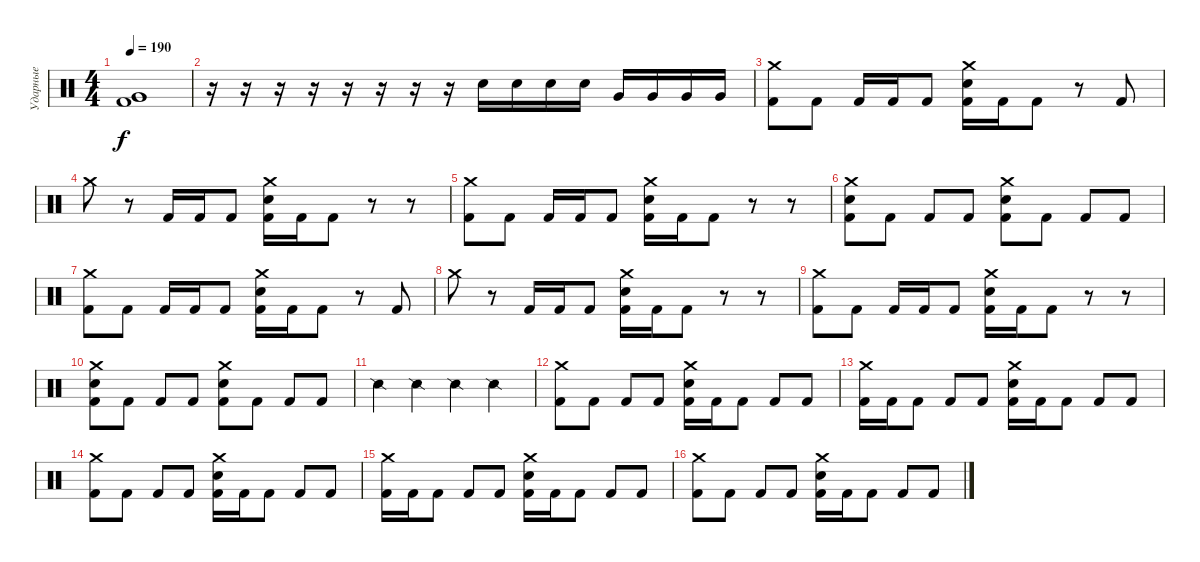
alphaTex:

\track ("Ударные" "Ударные") {instrument percussion}
\staff {score}
\articulation defaults
\ts (4 4)
\tempo 190
\clef neutral
\ks c
("Very Low Tom (hit)" "Very Low Tom (hit)" "Kick (hit) 2").1{dy f} |
r.16 r.16 r.16 r.16 r.16 r.16 r.16 r.16 "Electric Snare (hit)".16 "Electric Snare (hit)".16 "Electric Snare (hit)".16 "Electric Snare (hit)".16 "Very Low Tom (hit)".16 "Very Low Tom (hit)".16 "Very Low Tom (hit)".16 "Very Low Tom (hit)".16 |
("Crash medium (hit)" "Kick (hit) 2").8 "Kick (hit) 2".8 "Kick (hit) 2".16 "Kick (hit) 2".16 "Kick (hit) 2".8 ("Crash medium (hit)" "Electric Snare (hit)" "Kick (hit) 2").16 "Kick (hit) 2".16 "Kick (hit) 2".8 r.8 "Kick (hit) 2".8 |
"Crash medium (hit)".8 r.8 "Kick (hit) 2".16 "Kick (hit) 2".16 "Kick (hit) 2".8 ("Crash medium (hit)" "Electric Snare (hit)" "Kick (hit) 2").16 "Kick (hit) 2".16 "Kick (hit) 2".8 r.8 r.8 |
("Crash medium (hit)" "Kick (hit) 2").8 "Kick (hit) 2".8 "Kick (hit) 2".16 "Kick (hit) 2".16 "Kick (hit) 2".8 ("Crash medium (hit)" "Electric Snare (hit)" "Kick (hit) 2").16 "Kick (hit) 2".16 "Kick (hit) 2".8 r.8 r.8 |
("Crash medium (hit)" "Electric Snare (hit)" "Kick (hit) 2").8 "Kick (hit) 2".8 "Kick (hit) 2".8 "Kick (hit) 2".8 ("Crash medium (hit)" "Electric Snare (hit)" "Kick (hit) 2").8 "Kick (hit) 2".8 "Kick (hit) 2".8 "Kick (hit) 2".8 |
("Crash medium (hit)" "Kick (hit) 2").8 "Kick (hit) 2".8 "Kick (hit) 2".16 "Kick (hit) 2".16 "Kick (hit) 2".8 ("Crash medium (hit)" "Electric Snare (hit)" "Kick (hit) 2").16 "Kick (hit) 2".16 "Kick (hit) 2".8 r.8 "Kick (hit) 2".8 |
"Crash medium (hit)".8 r.8 "Kick (hit) 2".16 "Kick (hit) 2".16 "Kick (hit) 2".8 ("Crash medium (hit)" "Electric Snare (hit)" "Kick (hit) 2").16 "Kick (hit) 2".16 "Kick (hit) 2".8 r.8 r.8 |
("Crash medium (hit)" "Kick (hit) 2").8 "Kick (hit) 2".8 "Kick (hit) 2".16 "Kick (hit) 2".16 "Kick (hit) 2".8 ("Crash medium (hit)" "Electric Snare (hit)" "Kick (hit) 2").16 "Kick (hit) 2".16 "Kick (hit) 2".8 r.8 r.8 |
("Crash medium (hit)" "Electric Snare (hit)" "Kick (hit) 2").8 "Kick (hit) 2".8 "Kick (hit) 2".8 "Kick (hit) 2".8 ("Crash medium (hit)" "Electric Snare (hit)" "Kick (hit) 2").8 "Kick (hit) 2".8 "Kick (hit) 2".8 "Kick (hit) 2".8 |
"Snare (side stick) 2".4 "Snare (side stick) 2".4 "Snare (side stick) 2".4 "Snare (side stick) 2".4 |
("Crash medium (hit)" "Kick (hit) 2").8 "Kick (hit) 2".8 "Kick (hit) 2".8 "Kick (hit) 2".8 ("Crash medium (hit)" "Electric Snare (hit)" "Kick (hit) 2").16 "Kick (hit) 2".16 "Kick (hit) 2".8 "Kick (hit) 2".8 "Kick (hit) 2".8 |
("Crash medium (hit)" "Kick (hit) 2").16 "Kick (hit) 2".16 "Kick (hit) 2".8 "Kick (hit) 2".8 "Kick (hit) 2".8 ("Crash medium (hit)" "Electric Snare (hit)" "Kick (hit) 2").16 "Kick (hit) 2".16 "Kick (hit) 2".8 "Kick (hit) 2".8 "Kick (hit) 2".8 |
("Crash medium (hit)" "Kick (hit) 2").8 "Kick (hit) 2".8 "Kick (hit) 2".8 "Kick (hit) 2".8 ("Crash medium (hit)" "Electric Snare (hit)" "Kick (hit) 2").16 "Kick (hit) 2".16 "Kick (hit) 2".8 "Kick (hit) 2".8 "Kick (hit) 2".8 |
("Crash medium (hit)" "Kick (hit) 2").16 "Kick (hit) 2".16 "Kick (hit) 2".8 "Kick (hit) 2".8 "Kick (hit) 2".8 ("Crash medium (hit)" "Electric Snare (hit)" "Kick (hit) 2").16 "Kick (hit) 2".16 "Kick (hit) 2".8 "Kick (hit) 2".8 "Kick (hit) 2".8 |
("Crash medium (hit)" "Kick (hit) 2").8 "Kick (hit) 2".8 "Kick (hit) 2".8 "Kick (hit) 2".8 ("Crash medium (hit)" "Electric Snare (hit)" "Kick (hit) 2").16 "Kick (hit) 2".16 "Kick (hit) 2".8 "Kick (hit) 2".8 "Kick (hit) 2".8
